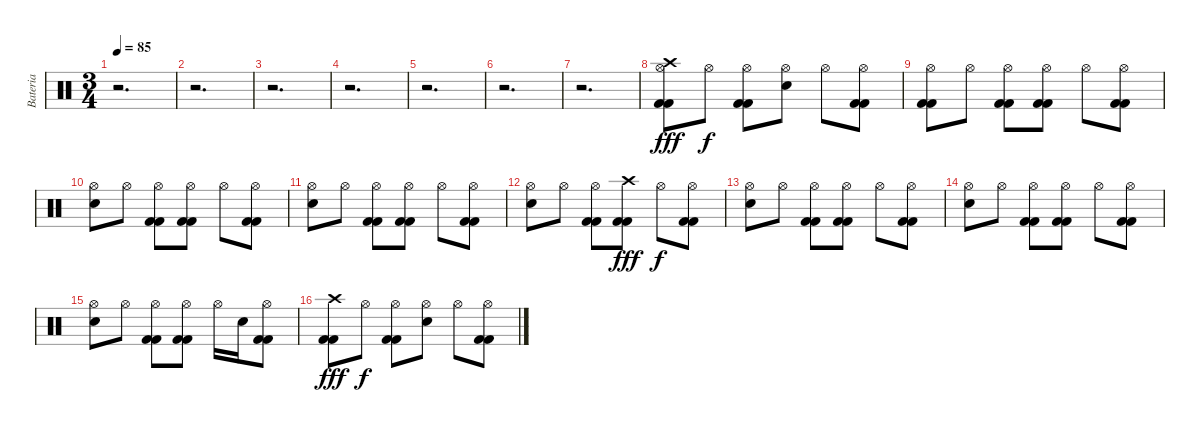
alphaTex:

\track ("Bateria" "Bateria") {instrument percussion}
\staff {score}
\articulation defaults
\ts (3 4)
\tempo 85
\clef neutral
\ks c
r.2{d dy f} |
r.2{d} |
r.2{d} |
r.2{d} |
r.2{d} |
r.2{d} |
r.2{d} |
("Crash high (hit)" "Hi-Hat (open)" "Kick (hit) 2" "Kick (hit) 2").8{dy fff} "Hi-Hat (open)".8{dy f} ("Hi-Hat (open)" "Kick (hit) 2" "Kick (hit) 2").8 ("Hi-Hat (open)" "Electric Snare (hit)").8 "Hi-Hat (open)".8 ("Hi-Hat (open)" "Kick (hit) 2" "Kick (hit) 2").8 |
("Hi-Hat (open)" "Kick (hit) 2" "Kick (hit) 2").8 "Hi-Hat (open)".8 ("Hi-Hat (open)" "Kick (hit) 2" "Kick (hit) 2").8 ("Hi-Hat (open)" "Kick (hit) 2" "Kick (hit) 2").8 "Hi-Hat (open)".8 ("Hi-Hat (open)" "Kick (hit) 2" "Kick (hit) 2").8 |
("Hi-Hat (open)" "Electric Snare (hit)").8 "Hi-Hat (open)".8 ("Hi-Hat (open)" "Kick (hit) 2" "Kick (hit) 2").8 ("Hi-Hat (open)" "Kick (hit) 2" "Kick (hit) 2").8 "Hi-Hat (open)".8 ("Hi-Hat (open)" "Kick (hit) 2" "Kick (hit) 2").8 |
("Hi-Hat (open)" "Electric Snare (hit)").8 "Hi-Hat (open)".8 ("Hi-Hat (open)" "Kick (hit) 2" "Kick (hit) 2").8 ("Hi-Hat (open)" "Kick (hit) 2" "Kick (hit) 2").8 "Hi-Hat (open)".8 ("Hi-Hat (open)" "Kick (hit) 2" "Kick (hit) 2").8 |
("Hi-Hat (open)" "Electric Snare (hit)").8 "Hi-Hat (open)".8 ("Hi-Hat (open)" "Kick (hit) 2" "Kick (hit) 2").8 ("Crash high (hit)" "Kick (hit) 2" "Kick (hit) 2").8{dy fff} "Hi-Hat (open)".8{dy f} ("Hi-Hat (open)" "Kick (hit) 2" "Kick (hit) 2").8 |
("Hi-Hat (open)" "Electric Snare (hit)").8 "Hi-Hat (open)".8 ("Hi-Hat (open)" "Kick (hit) 2" "Kick (hit) 2").8 ("Hi-Hat (open)" "Kick (hit) 2" "Kick (hit) 2").8 "Hi-Hat (open)".8 ("Hi-Hat (open)" "Kick (hit) 2" "Kick (hit) 2").8 |
("Hi-Hat (open)" "Electric Snare (hit)").8 "Hi-Hat (open)".8 ("Hi-Hat (open)" "Kick (hit) 2" "Kick (hit) 2").8 ("Hi-Hat (open)" "Kick (hit) 2" "Kick (hit) 2").8 "Hi-Hat (open)".8 ("Hi-Hat (open)" "Kick (hit) 2" "Kick (hit) 2").8 |
("Hi-Hat (open)" "Electric Snare (hit)").8 "Hi-Hat (open)".8 ("Hi-Hat (open)" "Kick (hit) 2" "Kick (hit) 2").8 ("Hi-Hat (open)" "Kick (hit) 2" "Kick (hit) 2").8 "Hi-Hat (open)".16 "Electric Snare (hit)".16 ("Hi-Hat (open)" "Kick (hit) 2" "Kick (hit) 2").8 |
("Crash high (hit)" "Kick (hit) 2" "Kick (hit) 2").8{dy fff} "Hi-Hat (open)".8{dy f} ("Hi-Hat (open)" "Kick (hit) 2" "Kick (hit) 2").8 ("Hi-Hat (open)" "Electric Snare (hit)").8 "Hi-Hat (open)".8 ("Hi-Hat (open)" "Kick (hit) 2" "Kick (hit) 2").8
